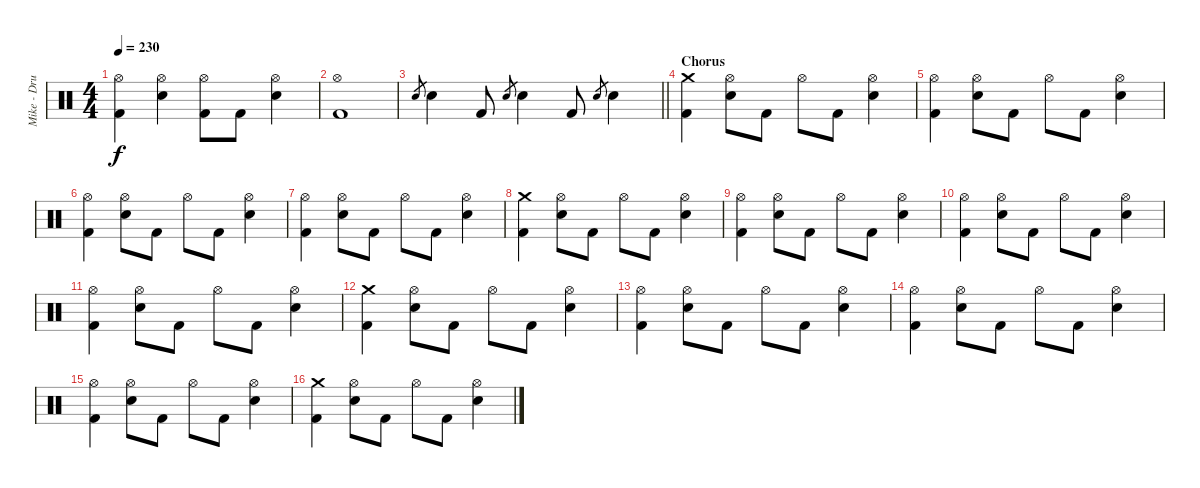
\track ("Mike - Drums" "Mike - Dru") {instrument percussion}
\staff {score}
\articulation defaults
\ts (4 4)
\tempo 230
\clef neutral
\ks c
("Hi-Hat (open)" "Kick (hit) 2").4{dy f} ("Hi-Hat (open)" "Electric Snare (hit)").4 ("Hi-Hat (open)" "Kick (hit) 2").8 "Kick (hit) 2".8 ("Hi-Hat (open)" "Electric Snare (hit)").4 |
("Hi-Hat (open)" "Kick (hit) 2").1 |
\barLineRight lightlight "Electric Snare (hit)".8{gr} "Electric Snare (hit)".4 "Kick (hit) 2".8 "Electric Snare (hit)".8{gr} "Electric Snare (hit)".4 "Kick (hit) 2".8 "Electric Snare (hit)".8{gr} "Electric Snare (hit)".4
|
\section ("" "Chorus")
("Crash medium (hit)" "Kick (hit) 2").4 ("Hi-Hat (open)" "Electric Snare (hit)").8 "Kick (hit) 2".8 "Hi-Hat (open)".8 "Kick (hit) 2".8 ("Hi-Hat (open)" "Electric Snare (hit)").4 |
("Hi-Hat (open)" "Kick (hit) 2").4 ("Hi-Hat (open)" "Electric Snare (hit)").8 "Kick (hit) 2".8 "Hi-Hat (open)".8 "Kick (hit) 2".8 ("Hi-Hat (open)" "Electric Snare (hit)").4 |
("Hi-Hat (open)" "Kick (hit) 2").4 ("Hi-Hat (open)" "Electric Snare (hit)").8 "Kick (hit) 2".8 "Hi-Hat (open)".8 "Kick (hit) 2".8 ("Hi-Hat (open)" "Electric Snare (hit)").4 |
("Hi-Hat (open)" "Kick (hit) 2").4 ("Hi-Hat (open)" "Electric Snare (hit)").8 "Kick (hit) 2".8 "Hi-Hat (open)".8 "Kick (hit) 2".8 ("Hi-Hat (open)" "Electric Snare (hit)").4 |
("Crash medium (hit)" "Kick (hit) 2").4 ("Hi-Hat (open)" "Electric Snare (hit)").8 "Kick (hit) 2".8 "Hi-Hat (open)".8 "Kick (hit) 2".8 ("Hi-Hat (open)" "Electric Snare (hit)").4 |
("Hi-Hat (open)" "Kick (hit) 2").4 ("Hi-Hat (open)" "Electric Snare (hit)").8 "Kick (hit) 2".8 "Hi-Hat (open)".8 "Kick (hit) 2".8 ("Hi-Hat (open)" "Electric Snare (hit)").4 |
("Hi-Hat (open)" "Kick (hit) 2").4 ("Hi-Hat (open)" "Electric Snare (hit)").8 "Kick (hit) 2".8 "Hi-Hat (open)".8 "Kick (hit) 2".8 ("Hi-Hat (open)" "Electric Snare (hit)").4 |
("Hi-Hat (open)" "Kick (hit) 2").4 ("Hi-Hat (open)" "Electric Snare (hit)").8 "Kick (hit) 2".8 "Hi-Hat (open)".8 "Kick (hit) 2".8 ("Hi-Hat (open)" "Electric Snare (hit)").4 |
("Crash medium (hit)" "Kick (hit) 2").4 ("Hi-Hat (open)" "Electric Snare (hit)").8 "Kick (hit) 2".8 "Hi-Hat (open)".8 "Kick (hit) 2".8 ("Hi-Hat (open)" "Electric Snare (hit)").4 |
("Hi-Hat (open)" "Kick (hit) 2").4 ("Hi-Hat (open)" "Electric Snare (hit)").8 "Kick (hit) 2".8 "Hi-Hat (open)".8 "Kick (hit) 2".8 ("Hi-Hat (open)" "Electric Snare (hit)").4 |
("Hi-Hat (open)" "Kick (hit) 2").4 ("Hi-Hat (open)" "Electric Snare (hit)").8 "Kick (hit) 2".8 "Hi-Hat (open)".8 "Kick (hit) 2".8 ("Hi-Hat (open)" "Electric Snare (hit)").4 |
("Hi-Hat (open)" "Kick (hit) 2").4 ("Hi-Hat (open)" "Electric Snare (hit)").8 "Kick (hit) 2".8 "Hi-Hat (open)".8 "Kick (hit) 2".8 ("Hi-Hat (open)" "Electric Snare (hit)").4 |
("Crash medium (hit)" "Kick (hit) 2").4 ("Hi-Hat (open)" "Electric Snare (hit)").8 "Kick (hit) 2".8 "Hi-Hat (open)".8 "Kick (hit) 2".8 ("Hi-Hat (open)" "Electric Snare (hit)").4
